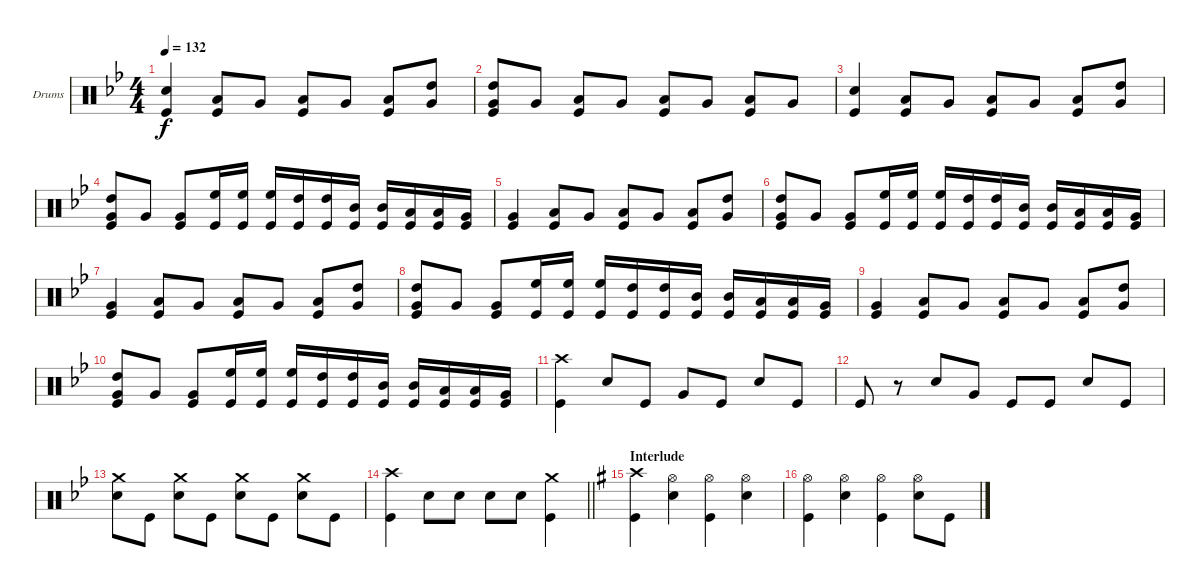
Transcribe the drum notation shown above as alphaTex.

\bracketExtendMode groupsimilarinstruments
\firstSystemTrackNameOrientation horizontal
\otherSystemsTrackNameOrientation horizontal
\track ("Drumkit" "Drums") {instrument percussion}
\staff {score}
\articulation defaults
\ts (4 4)
\tempo 132
\clef neutral
\ks bb
("Snare (hit) 2" "Kick (hit)").4{dy f} ("Low Tom (hit)" "Kick (hit)").8 "Very Low Tom (hit)".8 ("Low Tom (hit)" "Kick (hit)").8 "Very Low Tom (hit)".8 ("Low Tom (hit)" "Kick (hit)").8 ("High Tom (hit)" "Very Low Tom (hit)").8 |
("High Tom (hit)" "Very Low Tom (hit)" "Kick (hit)").8 "Very Low Tom (hit)".8 ("Low Tom (hit)" "Kick (hit)").8 "Very Low Tom (hit)".8 ("Low Tom (hit)" "Kick (hit)").8 "Very Low Tom (hit)".8 ("Low Tom (hit)" "Kick (hit)").8 "Very Low Tom (hit)".8 |
("Snare (hit) 2" "Kick (hit)").4 ("Low Tom (hit)" "Kick (hit)").8 "Very Low Tom (hit)".8 ("Low Tom (hit)" "Kick (hit)").8 "Very Low Tom (hit)".8 ("Low Tom (hit)" "Kick (hit)").8 ("High Tom (hit)" "Very Low Tom (hit)").8 |
("High Tom (hit)" "Very Low Tom (hit)" "Kick (hit)").8 "Very Low Tom (hit)".8 ("Very Low Tom (hit)" "Kick (hit)").8 ("High Floor Tom (hit)" "Kick (hit)").16 ("High Floor Tom (hit)" "Kick (hit)").16 ("High Floor Tom (hit)" "Kick (hit)").16 ("High Tom (hit)" "Kick (hit)").16 ("High Tom (hit)" "Kick (hit)").16 ("Mid Tom (hit)" "Kick (hit)").16 ("Mid Tom (hit)" "Kick (hit)").16 ("Low Tom (hit)" "Kick (hit)").16 ("Low Tom (hit)" "Kick (hit)").16 ("Very Low Tom (hit)" "Kick (hit)").16 |
("Very Low Tom (hit)" "Kick (hit)").4 ("Low Tom (hit)" "Kick (hit)").8 "Very Low Tom (hit)".8 ("Low Tom (hit)" "Kick (hit)").8 "Very Low Tom (hit)".8 ("Low Tom (hit)" "Kick (hit)").8 ("High Tom (hit)" "Very Low Tom (hit)").8 |
("High Tom (hit)" "Very Low Tom (hit)" "Kick (hit)").8 "Very Low Tom (hit)".8 ("Very Low Tom (hit)" "Kick (hit)").8 ("High Floor Tom (hit)" "Kick (hit)").16 ("High Floor Tom (hit)" "Kick (hit)").16 ("High Floor Tom (hit)" "Kick (hit)").16 ("High Tom (hit)" "Kick (hit)").16 ("High Tom (hit)" "Kick (hit)").16 ("Mid Tom (hit)" "Kick (hit)").16 ("Mid Tom (hit)" "Kick (hit)").16 ("Low Tom (hit)" "Kick (hit)").16 ("Low Tom (hit)" "Kick (hit)").16 ("Very Low Tom (hit)" "Kick (hit)").16 |
("Very Low Tom (hit)" "Kick (hit)").4 ("Low Tom (hit)" "Kick (hit)").8 "Very Low Tom (hit)".8 ("Low Tom (hit)" "Kick (hit)").8 "Very Low Tom (hit)".8 ("Low Tom (hit)" "Kick (hit)").8 ("High Tom (hit)" "Very Low Tom (hit)").8 |
("High Tom (hit)" "Very Low Tom (hit)" "Kick (hit)").8 "Very Low Tom (hit)".8 ("Very Low Tom (hit)" "Kick (hit)").8 ("High Floor Tom (hit)" "Kick (hit)").16 ("High Floor Tom (hit)" "Kick (hit)").16 ("High Floor Tom (hit)" "Kick (hit)").16 ("High Tom (hit)" "Kick (hit)").16 ("High Tom (hit)" "Kick (hit)").16 ("Mid Tom (hit)" "Kick (hit)").16 ("Mid Tom (hit)" "Kick (hit)").16 ("Low Tom (hit)" "Kick (hit)").16 ("Low Tom (hit)" "Kick (hit)").16 ("Very Low Tom (hit)" "Kick (hit)").16 |
("Very Low Tom (hit)" "Kick (hit)").4 ("Low Tom (hit)" "Kick (hit)").8 "Very Low Tom (hit)".8 ("Low Tom (hit)" "Kick (hit)").8 "Very Low Tom (hit)".8 ("Low Tom (hit)" "Kick (hit)").8 ("High Tom (hit)" "Very Low Tom (hit)").8 |
("High Tom (hit)" "Very Low Tom (hit)" "Kick (hit)").8 "Very Low Tom (hit)".8 ("Very Low Tom (hit)" "Kick (hit)").8 ("High Floor Tom (hit)" "Kick (hit)").16 ("High Floor Tom (hit)" "Kick (hit)").16 ("High Floor Tom (hit)" "Kick (hit)").16 ("High Tom (hit)" "Kick (hit)").16 ("High Tom (hit)" "Kick (hit)").16 ("Mid Tom (hit)" "Kick (hit)").16 ("Mid Tom (hit)" "Kick (hit)").16 ("Low Tom (hit)" "Kick (hit)").16 ("Low Tom (hit)" "Kick (hit)").16 ("Very Low Tom (hit)" "Kick (hit)").16 |
("Crash high (hit)" "Kick (hit)").4 "Snare (hit) 2".8 "Kick (hit)".8 "Very Low Tom (hit)".8 "Kick (hit)".8 "Snare (hit) 2".8 "Kick (hit)".8 |
"Kick (hit)".8 r.8 "Snare (hit) 2".8 "Very Low Tom (hit)".8 "Kick (hit)".8 "Kick (hit)".8 "Snare (hit) 2".8 "Kick (hit)".8 |
("Crash medium (hit)" "Snare (hit) 2").8 "Kick (hit)".8 ("Crash medium (hit)" "Snare (hit) 2").8 "Kick (hit)".8 ("Crash medium (hit)" "Snare (hit) 2").8 "Kick (hit)".8 ("Crash medium (hit)" "Snare (hit) 2").8 "Kick (hit)".8 |
\barLineRight lightlight
("Crash high (hit)" "Kick (hit)").4 "Snare (hit) 2".8 "Snare (hit) 2".8 "Snare (hit) 2".8 "Snare (hit) 2".8 ("Crash medium (hit)" "Kick (hit)").4 |
\section ("" "Interlude")
\ks g
("Crash high (hit)" "Kick (hit)").4 ("Hi-Hat (open)" "Snare (hit) 2").4 ("Hi-Hat (open)" "Kick (hit)").4 ("Hi-Hat (open)" "Snare (hit) 2").4 |
("Hi-Hat (open)" "Kick (hit)").4 ("Hi-Hat (open)" "Snare (hit) 2").4 ("Hi-Hat (open)" "Kick (hit)").4 ("Hi-Hat (open)" "Snare (hit) 2").8 "Kick (hit)".8
